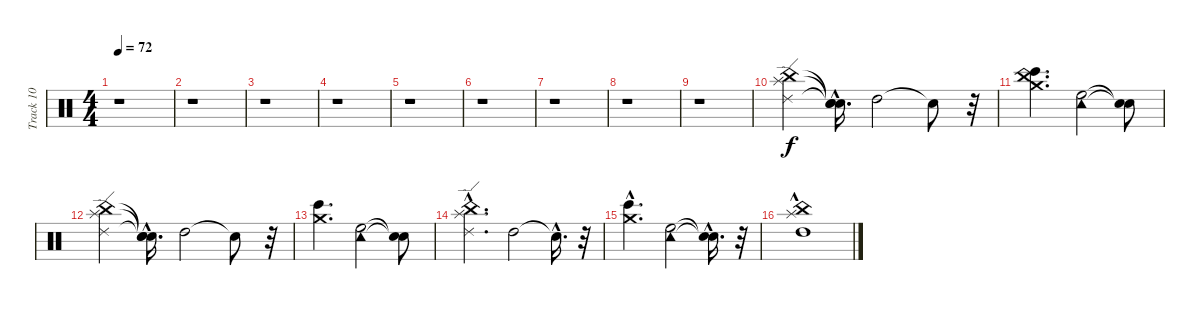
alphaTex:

\track ("Track 10" "Track 10") {instrument percussion}
\staff {score}
\articulation defaults
\ts (4 4)
\tempo 72
\clef neutral
\ks c
r.1{dy f} |
r.1 |
r.1 |
r.1 |
r.1 |
r.1 |
r.1 |
r.1 |
r.1 |
("Ride (edge) 2" "China (hit)" "Splash (hit)").4 ("Snare (hit)"{t} "Snare (hit)"{hac t} "Snare (hit)"{t}).16{d} "High Tom (hit)".2 "Snare (hit)"{t}.8 r.32 |
("Bongo High (hit)" "Crash medium (hit)" "China (hit)").4{d} ("High Floor Tom (hit)" "Tambourine (hit)").2 ("Snare (hit)"{t} "Snare (hit)"{t}).8 |
("Splash (hit)" "China (hit)" "Ride (edge) 2").4 ("Snare (hit)"{hac t} "Snare (hit)"{t} "Snare (hit)"{hac t}).16{d} "High Tom (hit)".2 "Snare (hit)"{t}.8 r.32 |
("Bongo High (hit)" "Crash medium (hit)").4{d} ("High Floor Tom (hit)" "Tambourine (hit)").2 ("Snare (hit)"{t} "Snare (hit)"{t}).8 |
("China (hit)" "Splash (hit)"{hac} "Ride (edge) 2").4{d} "High Tom (hit)".2 "Snare (hit)"{hac t}.16{d} r.32 |
("Bongo High (hit)"{hac} "Crash medium (hit)").4{d} ("High Floor Tom (hit)" "Tambourine (hit)").2 ("Snare (hit)"{hac t} "Snare (hit)"{hac t}).16{d} r.32 |
("High Tom (hit)"{hac} "China (hit)" "Splash (hit)").1
